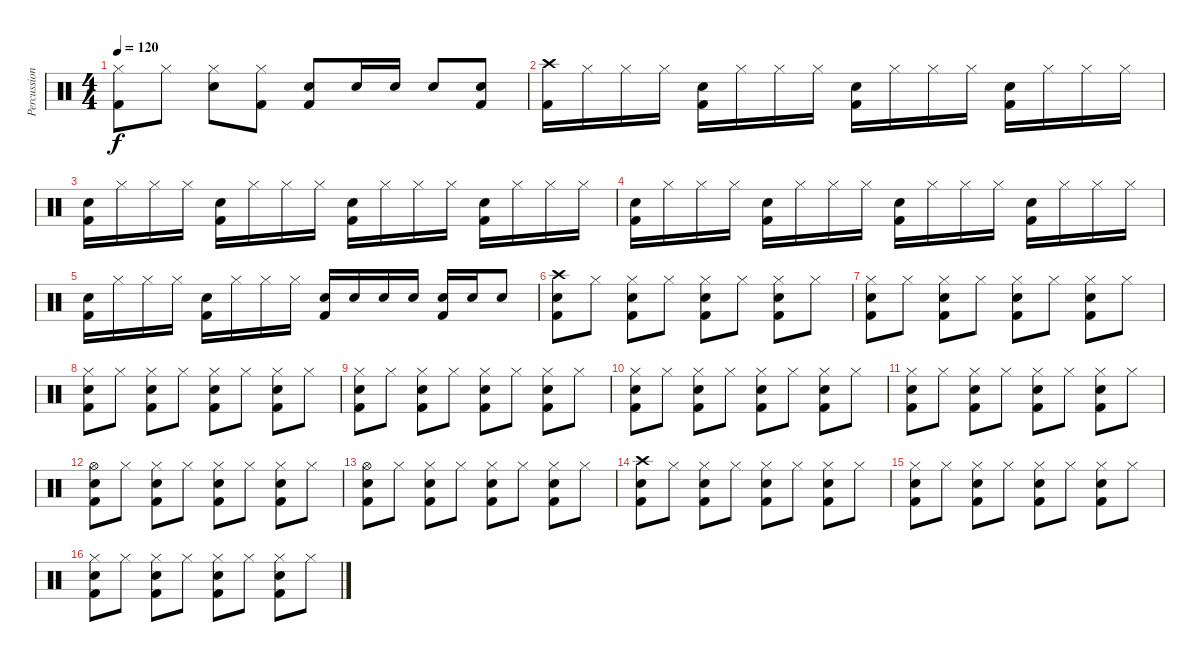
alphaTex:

\track ("Percussion" "Percussion") {instrument percussion}
\staff {score}
\articulation defaults
\ts (4 4)
\tempo 120
\clef neutral
\ks c
("Hi-Hat (closed)" "Kick (hit) 2").8{dy f} "Hi-Hat (closed)".8 ("Hi-Hat (closed)" "Snare (hit) 2").8 ("Hi-Hat (closed)" "Kick (hit) 2").8 ("Snare (hit) 2" "Kick (hit) 2").8 "Snare (hit) 2".16 "Snare (hit) 2".16 "Snare (hit) 2".8 ("Snare (hit) 2" "Kick (hit) 2").8 |
("Crash high (hit)" "Kick (hit) 2").16 "Hi-Hat (closed)".16 "Hi-Hat (closed)".16 "Hi-Hat (closed)".16 ("Snare (hit) 2" "Kick (hit) 2").16 "Hi-Hat (closed)".16 "Hi-Hat (closed)".16 "Hi-Hat (closed)".16 ("Snare (hit) 2" "Kick (hit) 2").16 "Hi-Hat (closed)".16 "Hi-Hat (closed)".16 "Hi-Hat (closed)".16 ("Snare (hit) 2" "Kick (hit) 2").16 "Hi-Hat (closed)".16 "Hi-Hat (closed)".16 "Hi-Hat (closed)".16 |
("Snare (hit) 2" "Kick (hit) 2").16 "Hi-Hat (closed)".16 "Hi-Hat (closed)".16 "Hi-Hat (closed)".16 ("Snare (hit) 2" "Kick (hit) 2").16 "Hi-Hat (closed)".16 "Hi-Hat (closed)".16 "Hi-Hat (closed)".16 ("Snare (hit) 2" "Kick (hit) 2").16 "Hi-Hat (closed)".16 "Hi-Hat (closed)".16 "Hi-Hat (closed)".16 ("Snare (hit) 2" "Kick (hit) 2").16 "Hi-Hat (closed)".16 "Hi-Hat (closed)".16 "Hi-Hat (closed)".16 |
("Snare (hit) 2" "Kick (hit) 2").16 "Hi-Hat (closed)".16 "Hi-Hat (closed)".16 "Hi-Hat (closed)".16 ("Snare (hit) 2" "Kick (hit) 2").16 "Hi-Hat (closed)".16 "Hi-Hat (closed)".16 "Hi-Hat (closed)".16 ("Snare (hit) 2" "Kick (hit) 2").16 "Hi-Hat (closed)".16 "Hi-Hat (closed)".16 "Hi-Hat (closed)".16 ("Snare (hit) 2" "Kick (hit) 2").16 "Hi-Hat (closed)".16 "Hi-Hat (closed)".16 "Hi-Hat (closed)".16 |
("Snare (hit) 2" "Kick (hit) 2").16 "Hi-Hat (closed)".16 "Hi-Hat (closed)".16 "Hi-Hat (closed)".16 ("Snare (hit) 2" "Kick (hit) 2").16 "Hi-Hat (closed)".16 "Hi-Hat (closed)".16 "Hi-Hat (closed)".16 ("Snare (hit) 2" "Kick (hit) 2").16 "Snare (hit) 2".16 "Snare (hit) 2".16 "Snare (hit) 2".16 ("Snare (hit) 2" "Kick (hit) 2").16 "Snare (hit) 2".16 "Snare (hit) 2".8 |
("Crash high (hit)" "Snare (hit) 2" "Kick (hit) 2").8 "Hi-Hat (closed)".8 ("Hi-Hat (closed)" "Snare (hit) 2" "Kick (hit) 2").8 "Hi-Hat (closed)".8 ("Hi-Hat (closed)" "Snare (hit) 2" "Kick (hit) 2").8 "Hi-Hat (closed)".8 ("Hi-Hat (closed)" "Snare (hit) 2" "Kick (hit) 2").8 "Hi-Hat (closed)".8 |
("Hi-Hat (closed)" "Snare (hit) 2" "Kick (hit) 2").8 "Hi-Hat (closed)".8 ("Hi-Hat (closed)" "Snare (hit) 2" "Kick (hit) 2").8 "Hi-Hat (closed)".8 ("Hi-Hat (closed)" "Snare (hit) 2" "Kick (hit) 2").8 "Hi-Hat (closed)".8 ("Hi-Hat (closed)" "Snare (hit) 2" "Kick (hit) 2").8 "Hi-Hat (closed)".8 |
("Hi-Hat (closed)" "Snare (hit) 2" "Kick (hit) 2").8 "Hi-Hat (closed)".8 ("Hi-Hat (closed)" "Snare (hit) 2" "Kick (hit) 2").8 "Hi-Hat (closed)".8 ("Hi-Hat (closed)" "Snare (hit) 2" "Kick (hit) 2").8 "Hi-Hat (closed)".8 ("Hi-Hat (closed)" "Snare (hit) 2" "Kick (hit) 2").8 "Hi-Hat (closed)".8 |
("Hi-Hat (closed)" "Snare (hit) 2" "Kick (hit) 2").8 "Hi-Hat (closed)".8 ("Hi-Hat (closed)" "Snare (hit) 2" "Kick (hit) 2").8 "Hi-Hat (closed)".8 ("Hi-Hat (closed)" "Snare (hit) 2" "Kick (hit) 2").8 "Hi-Hat (closed)".8 ("Hi-Hat (closed)" "Snare (hit) 2" "Kick (hit) 2").8 "Hi-Hat (closed)".8 |
("Hi-Hat (closed)" "Snare (hit) 2" "Kick (hit) 2").8 "Hi-Hat (closed)".8 ("Hi-Hat (closed)" "Snare (hit) 2" "Kick (hit) 2").8 "Hi-Hat (closed)".8 ("Hi-Hat (closed)" "Snare (hit) 2" "Kick (hit) 2").8 "Hi-Hat (closed)".8 ("Hi-Hat (closed)" "Snare (hit) 2" "Kick (hit) 2").8 "Hi-Hat (closed)".8 |
("Hi-Hat (closed)" "Snare (hit) 2" "Kick (hit) 2").8 "Hi-Hat (closed)".8 ("Hi-Hat (closed)" "Snare (hit) 2" "Kick (hit) 2").8 "Hi-Hat (closed)".8 ("Hi-Hat (closed)" "Snare (hit) 2" "Kick (hit) 2").8 "Hi-Hat (closed)".8 ("Hi-Hat (closed)" "Snare (hit) 2" "Kick (hit) 2").8 "Hi-Hat (closed)".8 |
("Hi-Hat (open)" "Snare (hit) 2" "Kick (hit) 2").8 "Hi-Hat (closed)".8 ("Hi-Hat (closed)" "Snare (hit) 2" "Kick (hit) 2").8 "Hi-Hat (closed)".8 ("Hi-Hat (closed)" "Snare (hit) 2" "Kick (hit) 2").8 "Hi-Hat (closed)".8 ("Hi-Hat (closed)" "Snare (hit) 2" "Kick (hit) 2").8 "Hi-Hat (closed)".8 |
("Hi-Hat (open)" "Snare (hit) 2" "Kick (hit) 2").8 "Hi-Hat (closed)".8 ("Hi-Hat (closed)" "Snare (hit) 2" "Kick (hit) 2").8 "Hi-Hat (closed)".8 ("Hi-Hat (closed)" "Snare (hit) 2" "Kick (hit) 2").8 "Hi-Hat (closed)".8 ("Hi-Hat (closed)" "Snare (hit) 2" "Kick (hit) 2").8 "Hi-Hat (closed)".8 |
("Crash high (hit)" "Snare (hit) 2" "Kick (hit) 2").8 "Hi-Hat (closed)".8 ("Hi-Hat (closed)" "Snare (hit) 2" "Kick (hit) 2").8 "Hi-Hat (closed)".8 ("Hi-Hat (closed)" "Snare (hit) 2" "Kick (hit) 2").8 "Hi-Hat (closed)".8 ("Hi-Hat (closed)" "Snare (hit) 2" "Kick (hit) 2").8 "Hi-Hat (closed)".8 |
("Hi-Hat (closed)" "Snare (hit) 2" "Kick (hit) 2").8 "Hi-Hat (closed)".8 ("Hi-Hat (closed)" "Snare (hit) 2" "Kick (hit) 2").8 "Hi-Hat (closed)".8 ("Hi-Hat (closed)" "Snare (hit) 2" "Kick (hit) 2").8 "Hi-Hat (closed)".8 ("Hi-Hat (closed)" "Snare (hit) 2" "Kick (hit) 2").8 "Hi-Hat (closed)".8 |
("Hi-Hat (closed)" "Snare (hit) 2" "Kick (hit) 2").8 "Hi-Hat (closed)".8 ("Hi-Hat (closed)" "Snare (hit) 2" "Kick (hit) 2").8 "Hi-Hat (closed)".8 ("Hi-Hat (closed)" "Snare (hit) 2" "Kick (hit) 2").8 "Hi-Hat (closed)".8 ("Hi-Hat (closed)" "Snare (hit) 2" "Kick (hit) 2").8 "Hi-Hat (closed)".8
